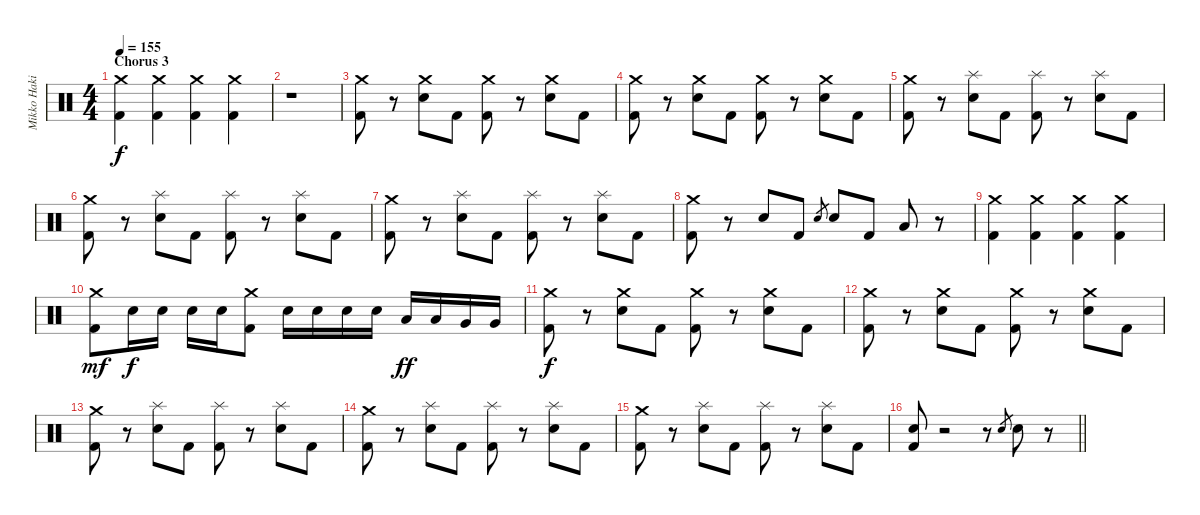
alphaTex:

\track ("Mikko Hakila - Drums" "Mikko Haki") {instrument percussion}
\staff {score}
\articulation defaults
\ts (4 4)
\section ("" "Chorus 3")
\tempo 155
\clef neutral
\ks c
("Crash medium (hit)" "Kick (hit) 2").4{dy f} ("Crash medium (hit)" "Kick (hit) 2").4 ("Crash medium (hit)" "Kick (hit) 2").4 ("Crash medium (hit)" "Kick (hit) 2").4 |
r.1 |
("Crash medium (hit)" "Kick (hit) 2").8 r.8 ("Crash medium (hit)" "Electric Snare (hit)").8 "Kick (hit) 2".8 ("Crash medium (hit)" "Kick (hit) 2").8 r.8 ("Crash medium (hit)" "Electric Snare (hit)").8 "Kick (hit) 2".8 |
("Crash medium (hit)" "Kick (hit) 2").8 r.8 ("Crash medium (hit)" "Electric Snare (hit)").8 "Kick (hit) 2".8 ("Crash medium (hit)" "Kick (hit) 2").8 r.8 ("Crash medium (hit)" "Electric Snare (hit)").8 "Kick (hit) 2".8 |
("Crash medium (hit)" "Kick (hit) 2").8 r.8 ("Splash (hit)" "Electric Snare (hit)").8 "Kick (hit) 2".8 ("Splash (hit)" "Kick (hit) 2").8 r.8 ("Splash (hit)" "Electric Snare (hit)").8 "Kick (hit) 2".8 |
("Crash medium (hit)" "Kick (hit) 2").8 r.8 ("Splash (hit)" "Electric Snare (hit)").8 "Kick (hit) 2".8 ("Splash (hit)" "Kick (hit) 2").8 r.8 ("Splash (hit)" "Electric Snare (hit)").8 "Kick (hit) 2".8 |
("Crash medium (hit)" "Kick (hit) 2").8 r.8 ("Splash (hit)" "Electric Snare (hit)").8 "Kick (hit) 2".8 ("Splash (hit)" "Kick (hit) 2").8 r.8 ("Splash (hit)" "Electric Snare (hit)").8 "Kick (hit) 2".8 |
("Crash medium (hit)" "Kick (hit) 2").8 r.8 "Electric Snare (hit)".8 "Kick (hit) 2".8 "Electric Snare (hit)".8{gr} "Electric Snare (hit)".8 "Kick (hit) 2".8 "Low Floor Tom (hit)".8 r.8 |
("Crash medium (hit)" "Kick (hit) 2").4 ("Crash medium (hit)" "Kick (hit) 2").4 ("Crash medium (hit)" "Kick (hit) 2").4 ("Crash medium (hit)" "Kick (hit) 2").4 |
("Crash medium (hit)" "Kick (hit) 2").8{dy mf} "Electric Snare (hit)".16{dy f} "Electric Snare (hit)".16 "Electric Snare (hit)".16 "Electric Snare (hit)".16 ("Crash medium (hit)" "Kick (hit) 2").8 "Electric Snare (hit)".16 "Electric Snare (hit)".16 "Electric Snare (hit)".16 "Electric Snare (hit)".16 "Low Tom (hit)".16{dy ff} "Low Tom (hit)".16 "Very Low Tom (hit)".16 "Very Low Tom (hit)".16 |
("Crash medium (hit)" "Kick (hit) 2").8{dy f} r.8 ("Crash medium (hit)" "Electric Snare (hit)").8 "Kick (hit) 2".8 ("Crash medium (hit)" "Kick (hit) 2").8 r.8 ("Crash medium (hit)" "Electric Snare (hit)").8 "Kick (hit) 2".8 |
("Crash medium (hit)" "Kick (hit) 2").8 r.8 ("Crash medium (hit)" "Electric Snare (hit)").8 "Kick (hit) 2".8 ("Crash medium (hit)" "Kick (hit) 2").8 r.8 ("Crash medium (hit)" "Electric Snare (hit)").8 "Kick (hit) 2".8 |
("Crash medium (hit)" "Kick (hit) 2").8 r.8 ("Splash (hit)" "Electric Snare (hit)").8 "Kick (hit) 2".8 ("Splash (hit)" "Kick (hit) 2").8 r.8 ("Splash (hit)" "Electric Snare (hit)").8 "Kick (hit) 2".8 |
("Crash medium (hit)" "Kick (hit) 2").8 r.8 ("Splash (hit)" "Electric Snare (hit)").8 "Kick (hit) 2".8 ("Splash (hit)" "Kick (hit) 2").8 r.8 ("Splash (hit)" "Electric Snare (hit)").8 "Kick (hit) 2".8 |
("Crash medium (hit)" "Kick (hit) 2").8 r.8 ("Splash (hit)" "Electric Snare (hit)").8 "Kick (hit) 2".8 ("Splash (hit)" "Kick (hit) 2").8 r.8 ("Splash (hit)" "Electric Snare (hit)").8 "Kick (hit) 2".8 |
\barLineRight lightlight
("Electric Snare (hit)" "Kick (hit) 2").8 r.2 r.8 "Electric Snare (hit)".8{gr} "Electric Snare (hit)".8 r.8
